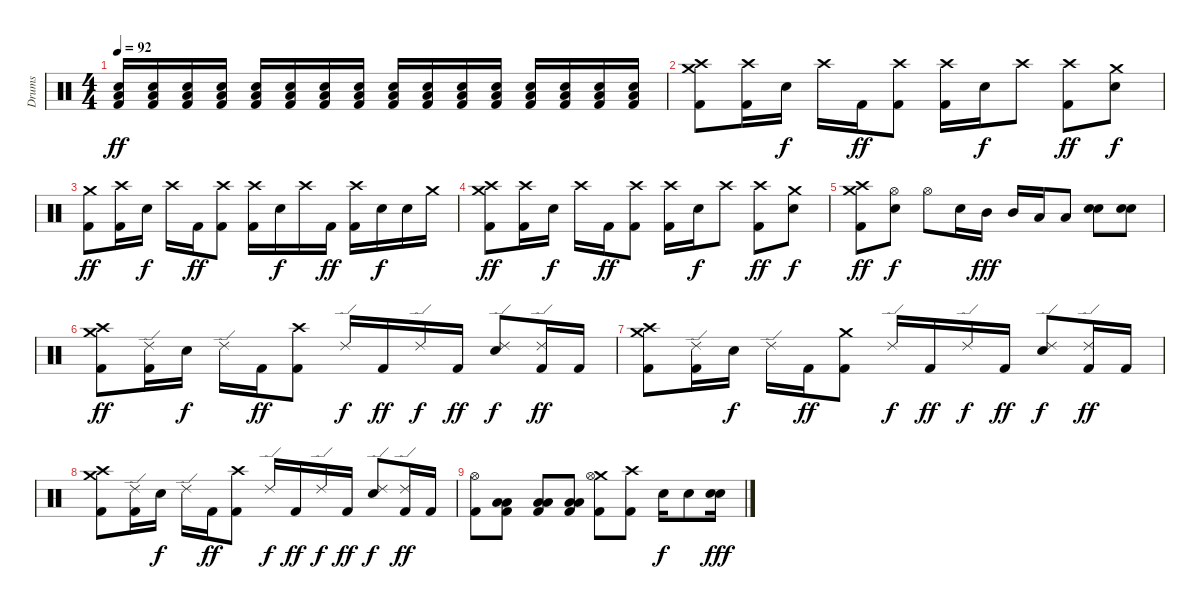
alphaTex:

\track ("Drums" "Drums") {instrument percussion}
\staff {score}
\articulation defaults
\ts (4 4)
\tempo 92
\clef neutral
\ks c
("Electric Snare (hit)" "Low Floor Tom (hit)" "Kick (hit) 2").16{dy ff} ("Electric Snare (hit)" "Low Floor Tom (hit)" "Kick (hit) 2").16 ("Electric Snare (hit)" "Low Floor Tom (hit)" "Kick (hit) 2").16 ("Electric Snare (hit)" "Low Floor Tom (hit)" "Kick (hit) 2").16 ("Electric Snare (hit)" "Low Floor Tom (hit)" "Kick (hit) 2").16 ("Electric Snare (hit)" "Low Floor Tom (hit)" "Kick (hit) 2").16 ("Electric Snare (hit)" "Low Floor Tom (hit)" "Kick (hit) 2").16 ("Electric Snare (hit)" "Low Floor Tom (hit)" "Kick (hit) 2").16 ("Electric Snare (hit)" "Low Floor Tom (hit)" "Kick (hit) 2").16 ("Electric Snare (hit)" "Low Floor Tom (hit)" "Kick (hit) 2").16 ("Electric Snare (hit)" "Low Floor Tom (hit)" "Kick (hit) 2").16 ("Electric Snare (hit)" "Low Floor Tom (hit)" "Kick (hit) 2").16 ("Electric Snare (hit)" "Low Floor Tom (hit)" "Kick (hit) 2").16 ("Electric Snare (hit)" "Low Floor Tom (hit)" "Kick (hit) 2").16 ("Electric Snare (hit)" "Low Floor Tom (hit)" "Kick (hit) 2").16 ("Electric Snare (hit)" "Low Floor Tom (hit)" "Kick (hit) 2").16 |
("Crash medium (hit)" "Crash high (hit)" "Kick (hit) 2").8 ("Crash high (hit)" "Kick (hit) 2").16 "Electric Snare (hit)".16{dy f} "Crash high (hit)".16 "Kick (hit) 2".16{dy ff} ("Crash high (hit)" "Kick (hit) 2").8 ("Crash high (hit)" "Kick (hit) 2").16 "Electric Snare (hit)".16{dy f} "Crash high (hit)".8 ("Crash high (hit)" "Kick (hit) 2").8{dy ff} ("Crash medium (hit)" "Electric Snare (hit)").8{dy f} |
("Crash medium (hit)" "Kick (hit) 2").8{dy ff} ("Crash high (hit)" "Kick (hit) 2").16 "Electric Snare (hit)".16{dy f} "Crash high (hit)".16 "Kick (hit) 2".16{dy ff} ("Crash high (hit)" "Kick (hit) 2").8 ("Crash high (hit)" "Kick (hit) 2").16 "Electric Snare (hit)".16{dy f} "Crash high (hit)".16 "Kick (hit) 2".16{dy ff} ("Crash high (hit)" "Kick (hit) 2").16 "Electric Snare (hit)".16{dy f} "Electric Snare (hit)".16 "Crash medium (hit)".16 |
("Crash medium (hit)" "Crash high (hit)" "Kick (hit) 2").8{dy ff} ("Crash high (hit)" "Kick (hit) 2").16 "Electric Snare (hit)".16{dy f} "Crash high (hit)".16 "Kick (hit) 2".16{dy ff} ("Crash high (hit)" "Kick (hit) 2").8 ("Crash high (hit)" "Kick (hit) 2").16 "Electric Snare (hit)".16{dy f} "Crash high (hit)".8 ("Crash high (hit)" "Kick (hit) 2").8{dy ff} ("Crash medium (hit)" "Electric Snare (hit)").8{dy f} |
("Crash medium (hit)" "Crash high (hit)" "Kick (hit) 2").8{dy ff} ("Hi-Hat (open)" "Electric Snare (hit)").8{dy f} "Hi-Hat (open)".8 "Electric Snare (hit)".16 "Mid Tom (hit)".16{dy fff} "Mid Tom (hit)".16 "Low Tom (hit)".16 "Low Tom (hit)".8 ("Electric Snare (hit)" "Electric Snare (hit)").8 ("Electric Snare (hit)" "Electric Snare (hit)").8 |
("Crash medium (hit)" "Crash high (hit)" "Kick (hit) 2").8{dy ff} ("Ride (edge) 2" "Kick (hit) 2").16 "Electric Snare (hit)".16{dy f} "Ride (edge) 2".16 "Kick (hit) 2".16{dy ff} ("Crash high (hit)" "Kick (hit) 2").8 "Ride (edge) 2".16{dy f} "Kick (hit) 2".16{dy ff} "Ride (edge) 2".16{dy f} "Kick (hit) 2".16{dy ff} ("Ride (edge) 2" "Electric Snare (hit)").8{dy f} ("Ride (edge) 2" "Kick (hit) 2").16{dy ff} "Kick (hit) 2".16 |
("Crash medium (hit)" "Crash high (hit)" "Kick (hit) 2").8 ("Ride (edge) 2" "Kick (hit) 2").16 "Electric Snare (hit)".16{dy f} "Ride (edge) 2".16 "Kick (hit) 2".16{dy ff} ("Crash medium (hit)" "Kick (hit) 2").8 "Ride (edge) 2".16{dy f} "Kick (hit) 2".16{dy ff} "Ride (edge) 2".16{dy f} "Kick (hit) 2".16{dy ff} ("Ride (edge) 2" "Electric Snare (hit)").8{dy f} ("Ride (edge) 2" "Kick (hit) 2").16{dy ff} "Kick (hit) 2".16 |
("Crash medium (hit)" "Crash high (hit)" "Kick (hit) 2").8 ("Ride (edge) 2" "Kick (hit) 2").16 "Electric Snare (hit)".16{dy f} "Ride (edge) 2".16 "Kick (hit) 2".16{dy ff} ("Crash high (hit)" "Kick (hit) 2").8 "Ride (edge) 2".16{dy f} "Kick (hit) 2".16{dy ff} "Ride (edge) 2".16{dy f} "Kick (hit) 2".16{dy ff} ("Ride (edge) 2" "Electric Snare (hit)").8{dy f} ("Ride (edge) 2" "Kick (hit) 2").16{dy ff} "Kick (hit) 2".16 |
("Hi-Hat (open)" "Kick (hit) 2").8 ("Low Floor Tom (hit)" "Low Floor Tom (hit)" "Kick (hit) 2").8 ("Low Floor Tom (hit)" "Low Floor Tom (hit)" "Kick (hit) 2").8 ("Low Floor Tom (hit)" "Low Floor Tom (hit)" "Kick (hit) 2").8 ("Crash medium (hit)" "Hi-Hat (open)" "Kick (hit) 2").8 ("Crash high (hit)" "Kick (hit) 2").8 "Electric Snare (hit)".16{dy f} "Electric Snare (hit)".8 ("Electric Snare (hit)" "Electric Snare (hit)").16{dy fff}
